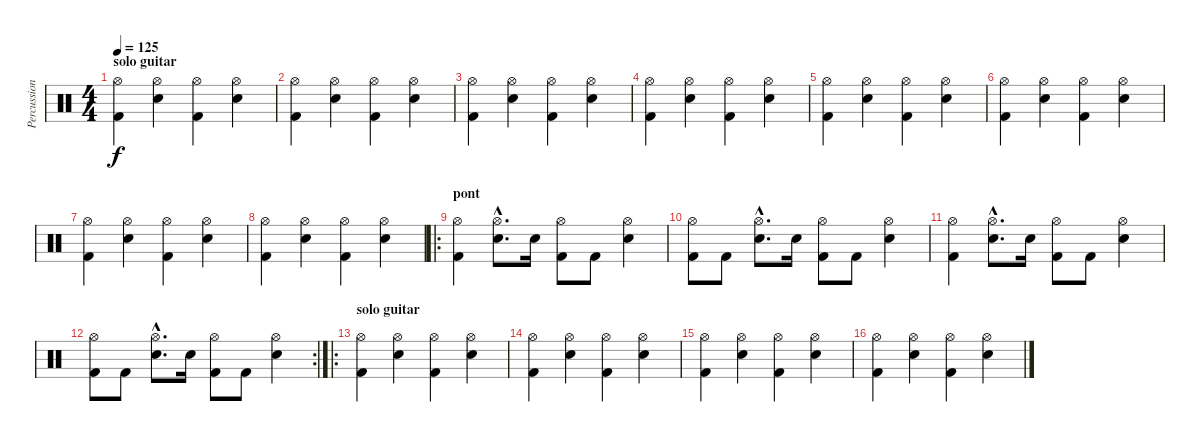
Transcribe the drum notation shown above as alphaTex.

\track ("Percussions" "Percussion") {instrument percussion}
\staff {score}
\articulation defaults
\ts (4 4)
\section ("" "solo guitar")
\tempo 125
\clef neutral
\ks c
("Hi-Hat (open)" "Kick (hit) 2").4{dy f} ("Hi-Hat (open)" "Electric Snare (hit)").4 ("Hi-Hat (open)" "Kick (hit) 2").4 ("Hi-Hat (open)" "Electric Snare (hit)").4 |
("Hi-Hat (open)" "Kick (hit) 2").4 ("Hi-Hat (open)" "Electric Snare (hit)").4 ("Hi-Hat (open)" "Kick (hit) 2").4 ("Hi-Hat (open)" "Electric Snare (hit)").4 |
("Hi-Hat (open)" "Kick (hit) 2").4 ("Hi-Hat (open)" "Electric Snare (hit)").4 ("Hi-Hat (open)" "Kick (hit) 2").4 ("Hi-Hat (open)" "Electric Snare (hit)").4 |
("Hi-Hat (open)" "Kick (hit) 2").4 ("Hi-Hat (open)" "Electric Snare (hit)").4 ("Hi-Hat (open)" "Kick (hit) 2").4 ("Hi-Hat (open)" "Electric Snare (hit)").4 |
("Hi-Hat (open)" "Kick (hit) 2").4 ("Hi-Hat (open)" "Electric Snare (hit)").4 ("Hi-Hat (open)" "Kick (hit) 2").4 ("Hi-Hat (open)" "Electric Snare (hit)").4 |
("Hi-Hat (open)" "Kick (hit) 2").4 ("Hi-Hat (open)" "Electric Snare (hit)").4 ("Hi-Hat (open)" "Kick (hit) 2").4 ("Hi-Hat (open)" "Electric Snare (hit)").4 |
("Hi-Hat (open)" "Kick (hit) 2").4 ("Hi-Hat (open)" "Electric Snare (hit)").4 ("Hi-Hat (open)" "Kick (hit) 2").4 ("Hi-Hat (open)" "Electric Snare (hit)").4 |
("Hi-Hat (open)" "Kick (hit) 2").4 ("Hi-Hat (open)" "Electric Snare (hit)").4 ("Hi-Hat (open)" "Kick (hit) 2").4 ("Hi-Hat (open)" "Electric Snare (hit)").4 |
\ro
\section ("" "pont")
("Hi-Hat (open)" "Kick (hit) 2").4 ("Hi-Hat (open)"{hac} "Electric Snare (hit)"{hac}).8{d} "Electric Snare (hit)".16 ("Hi-Hat (open)" "Kick (hit) 2").8 "Kick (hit) 2".8 ("Hi-Hat (open)" "Electric Snare (hit)").4 |
("Hi-Hat (open)" "Kick (hit) 2").8 "Kick (hit) 2".8 ("Hi-Hat (open)"{hac} "Electric Snare (hit)"{hac}).8{d} "Electric Snare (hit)".16 ("Hi-Hat (open)" "Kick (hit) 2").8 "Kick (hit) 2".8 ("Hi-Hat (open)" "Electric Snare (hit)").4 |
("Hi-Hat (open)" "Kick (hit) 2").4 ("Hi-Hat (open)"{hac} "Electric Snare (hit)"{hac}).8{d} "Electric Snare (hit)".16 ("Hi-Hat (open)" "Kick (hit) 2").8 "Kick (hit) 2".8 ("Hi-Hat (open)" "Electric Snare (hit)").4 |
\rc 2
("Hi-Hat (open)" "Kick (hit) 2").8 "Kick (hit) 2".8 ("Hi-Hat (open)"{hac} "Electric Snare (hit)"{hac}).8{d} "Electric Snare (hit)".16 ("Hi-Hat (open)" "Kick (hit) 2").8 "Kick (hit) 2".8 ("Hi-Hat (open)" "Electric Snare (hit)").4 |
\ro
\section ("" "solo guitar")
("Hi-Hat (open)" "Kick (hit) 2").4 ("Hi-Hat (open)" "Electric Snare (hit)").4 ("Hi-Hat (open)" "Kick (hit) 2").4 ("Hi-Hat (open)" "Electric Snare (hit)").4 |
("Hi-Hat (open)" "Kick (hit) 2").4 ("Hi-Hat (open)" "Electric Snare (hit)").4 ("Hi-Hat (open)" "Kick (hit) 2").4 ("Hi-Hat (open)" "Electric Snare (hit)").4 |
("Hi-Hat (open)" "Kick (hit) 2").4 ("Hi-Hat (open)" "Electric Snare (hit)").4 ("Hi-Hat (open)" "Kick (hit) 2").4 ("Hi-Hat (open)" "Electric Snare (hit)").4 |
("Hi-Hat (open)" "Kick (hit) 2").4 ("Hi-Hat (open)" "Electric Snare (hit)").4 ("Hi-Hat (open)" "Kick (hit) 2").4 ("Hi-Hat (open)" "Electric Snare (hit)").4
